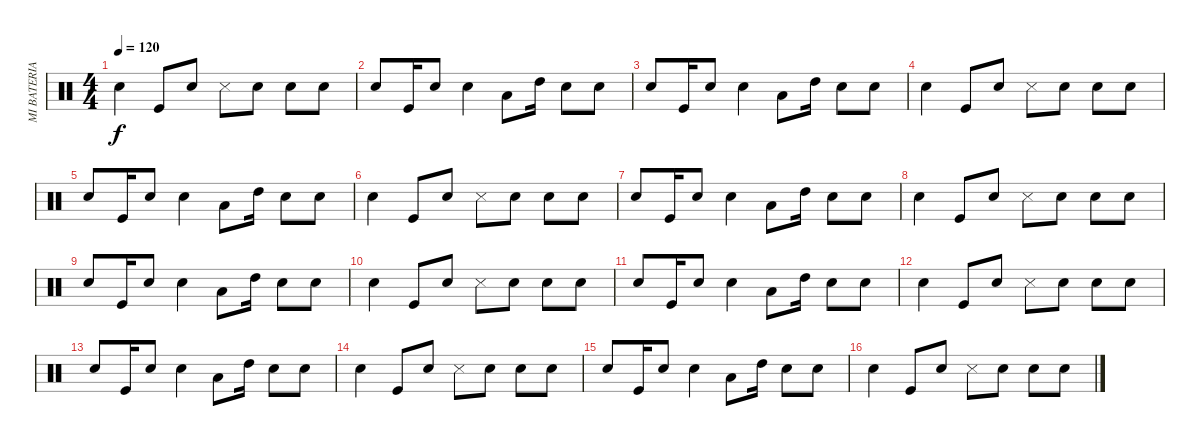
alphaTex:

\track ("MI BATERIA" "MI BATERIA") {instrument percussion}
\staff {score}
\articulation defaults
\ts (4 4)
\tempo 120
\clef neutral
\ks c "Snare (hit) 2".4{dy f} "Kick (hit)".8 "Electric Snare (hit)".8 "Snare (side stick) 3".8 "Electric Snare (hit)".8 "Snare (hit) 2".8 "Electric Snare (hit)".8
|
"Snare (hit) 2".8 "Kick (hit)".16 "Electric Snare (hit)".8 "Snare (hit) 2".4 "Low Floor Tom (hit)".8 "High Tom (hit)".16 "Snare (hit) 2".8 "Electric Snare (hit)".8 |
"Snare (hit) 2".8 "Kick (hit)".16 "Electric Snare (hit)".8 "Snare (hit) 2".4 "Low Floor Tom (hit)".8 "High Tom (hit)".16 "Snare (hit) 2".8 "Electric Snare (hit)".8 |
"Snare (hit) 2".4 "Kick (hit)".8 "Electric Snare (hit)".8 "Snare (side stick) 3".8 "Electric Snare (hit)".8 "Snare (hit) 2".8 "Electric Snare (hit)".8 |
"Snare (hit) 2".8 "Kick (hit)".16 "Electric Snare (hit)".8 "Snare (hit) 2".4 "Low Floor Tom (hit)".8 "High Tom (hit)".16 "Snare (hit) 2".8 "Electric Snare (hit)".8 |
"Snare (hit) 2".4 "Kick (hit)".8 "Electric Snare (hit)".8 "Snare (side stick) 3".8 "Electric Snare (hit)".8 "Snare (hit) 2".8 "Electric Snare (hit)".8 |
"Snare (hit) 2".8 "Kick (hit)".16 "Electric Snare (hit)".8 "Snare (hit) 2".4 "Low Floor Tom (hit)".8 "High Tom (hit)".16 "Snare (hit) 2".8 "Electric Snare (hit)".8 |
"Snare (hit) 2".4 "Kick (hit)".8 "Electric Snare (hit)".8 "Snare (side stick) 3".8 "Electric Snare (hit)".8 "Snare (hit) 2".8 "Electric Snare (hit)".8 |
"Snare (hit) 2".8 "Kick (hit)".16 "Electric Snare (hit)".8 "Snare (hit) 2".4 "Low Floor Tom (hit)".8 "High Tom (hit)".16 "Snare (hit) 2".8 "Electric Snare (hit)".8 |
"Snare (hit) 2".4 "Kick (hit)".8 "Electric Snare (hit)".8 "Snare (side stick) 3".8 "Electric Snare (hit)".8 "Snare (hit) 2".8 "Electric Snare (hit)".8 |
"Snare (hit) 2".8 "Kick (hit)".16 "Electric Snare (hit)".8 "Snare (hit) 2".4 "Low Floor Tom (hit)".8 "High Tom (hit)".16 "Snare (hit) 2".8 "Electric Snare (hit)".8 |
"Snare (hit) 2".4 "Kick (hit)".8 "Electric Snare (hit)".8 "Snare (side stick) 3".8 "Electric Snare (hit)".8 "Snare (hit) 2".8 "Electric Snare (hit)".8 |
"Snare (hit) 2".8 "Kick (hit)".16 "Electric Snare (hit)".8 "Snare (hit) 2".4 "Low Floor Tom (hit)".8 "High Tom (hit)".16 "Snare (hit) 2".8 "Electric Snare (hit)".8 |
"Snare (hit) 2".4 "Kick (hit)".8 "Electric Snare (hit)".8 "Snare (side stick) 3".8 "Electric Snare (hit)".8 "Snare (hit) 2".8 "Electric Snare (hit)".8 |
"Snare (hit) 2".8 "Kick (hit)".16 "Electric Snare (hit)".8 "Snare (hit) 2".4 "Low Floor Tom (hit)".8 "High Tom (hit)".16 "Snare (hit) 2".8 "Electric Snare (hit)".8 |
"Snare (hit) 2".4 "Kick (hit)".8 "Electric Snare (hit)".8 "Snare (side stick) 3".8 "Electric Snare (hit)".8 "Snare (hit) 2".8 "Electric Snare (hit)".8
